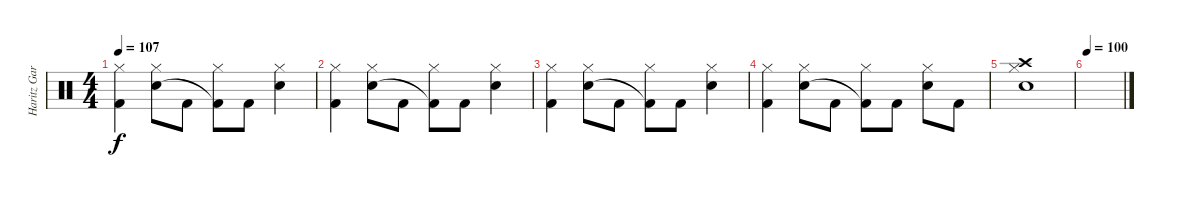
\track ("Haritz Gardo" "Haritz Gar") {instrument percussion}
\staff {score}
\articulation defaults
\ts (4 4)
\tempo 107
\clef neutral
\ks c
("Hi-Hat (closed)" "Kick (hit) 2").4{dy f} ("Hi-Hat (closed)" "Electric Snare (hit)").8 "Kick (hit) 2".8 ("Hi-Hat (closed)" "Kick (hit) 2"{t}).8 "Kick (hit) 2".8 ("Hi-Hat (closed)" "Electric Snare (hit)").4 |
("Hi-Hat (closed)" "Kick (hit) 2").4 ("Hi-Hat (closed)" "Electric Snare (hit)").8 "Kick (hit) 2".8 ("Hi-Hat (closed)" "Kick (hit) 2"{t}).8 "Kick (hit) 2".8 ("Hi-Hat (closed)" "Electric Snare (hit)").4 |
("Hi-Hat (closed)" "Kick (hit) 2").4 ("Hi-Hat (closed)" "Electric Snare (hit)").8 "Kick (hit) 2".8 ("Hi-Hat (closed)" "Kick (hit) 2"{t}).8 "Kick (hit) 2".8 ("Hi-Hat (closed)" "Electric Snare (hit)").4 |
("Hi-Hat (closed)" "Kick (hit) 2").4 ("Hi-Hat (closed)" "Electric Snare (hit)").8 "Kick (hit) 2".8 ("Hi-Hat (closed)" "Kick (hit) 2"{t}).8 "Kick (hit) 2".8 ("Hi-Hat (closed)" "Electric Snare (hit)").8 "Kick (hit) 2".8 |
("Crash high (hit)" "Hi-Hat (closed)" "Electric Snare (hit)").1 |
\tempo 100
